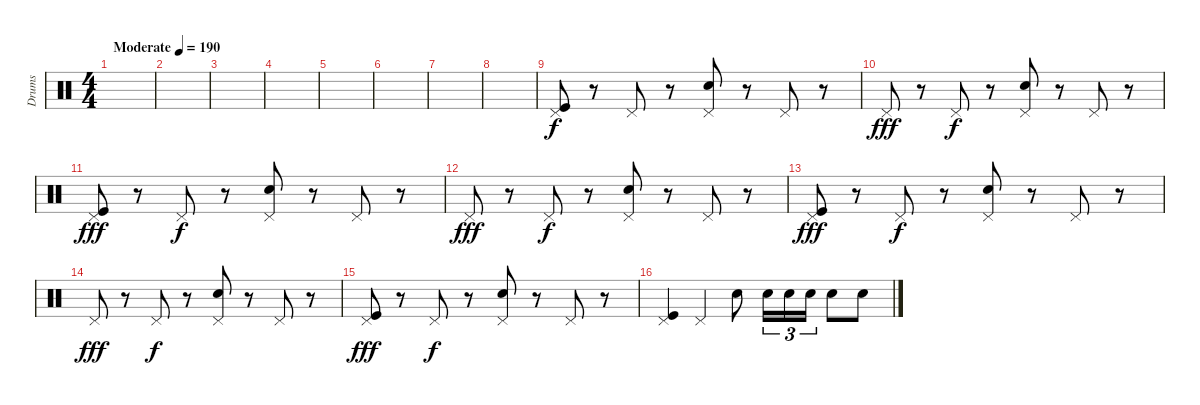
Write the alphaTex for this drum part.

\track ("Drums" "Drums") {instrument percussion}
\staff {score}
\articulation defaults
\ts (4 4)
\tempo (190 "Moderate")
\clef neutral
\ks c
|
|
|
|
|
|
|
|
("Kick (hit)" "Pedal Hi-Hat (hit)").8 r.8 "Pedal Hi-Hat (hit)".8{dy f} r.8 ("Electric Snare (hit)" "Pedal Hi-Hat (hit)").8 r.8 "Pedal Hi-Hat (hit)".8 r.8 |
"Pedal Hi-Hat (hit)".8{dy fff} r.8 "Pedal Hi-Hat (hit)".8{dy f} r.8 ("Electric Snare (hit)" "Pedal Hi-Hat (hit)").8 r.8 "Pedal Hi-Hat (hit)".8 r.8 |
("Kick (hit)" "Pedal Hi-Hat (hit)").8{dy fff} r.8 "Pedal Hi-Hat (hit)".8{dy f} r.8 ("Electric Snare (hit)" "Pedal Hi-Hat (hit)").8 r.8 "Pedal Hi-Hat (hit)".8 r.8 |
"Pedal Hi-Hat (hit)".8{dy fff} r.8 "Pedal Hi-Hat (hit)".8{dy f} r.8 ("Electric Snare (hit)" "Pedal Hi-Hat (hit)").8 r.8 "Pedal Hi-Hat (hit)".8 r.8 |
("Kick (hit)" "Pedal Hi-Hat (hit)").8{dy fff} r.8 "Pedal Hi-Hat (hit)".8{dy f} r.8 ("Electric Snare (hit)" "Pedal Hi-Hat (hit)").8 r.8 "Pedal Hi-Hat (hit)".8 r.8 |
"Pedal Hi-Hat (hit)".8{dy fff} r.8 "Pedal Hi-Hat (hit)".8{dy f} r.8 ("Electric Snare (hit)" "Pedal Hi-Hat (hit)").8 r.8 "Pedal Hi-Hat (hit)".8 r.8 |
("Kick (hit)" "Pedal Hi-Hat (hit)").8{dy fff} r.8 "Pedal Hi-Hat (hit)".8{dy f} r.8 ("Electric Snare (hit)" "Pedal Hi-Hat (hit)").8 r.8 "Pedal Hi-Hat (hit)".8 r.8 |
("Kick (hit)" "Pedal Hi-Hat (hit)").4 "Pedal Hi-Hat (hit)".4 "Electric Snare (hit)".8 "Electric Snare (hit)".16{tu (3 2)} "Electric Snare (hit)".16{tu (3 2)} "Electric Snare (hit)".16{tu (3 2)} "Electric Snare (hit)".8 "Electric Snare (hit)".8
